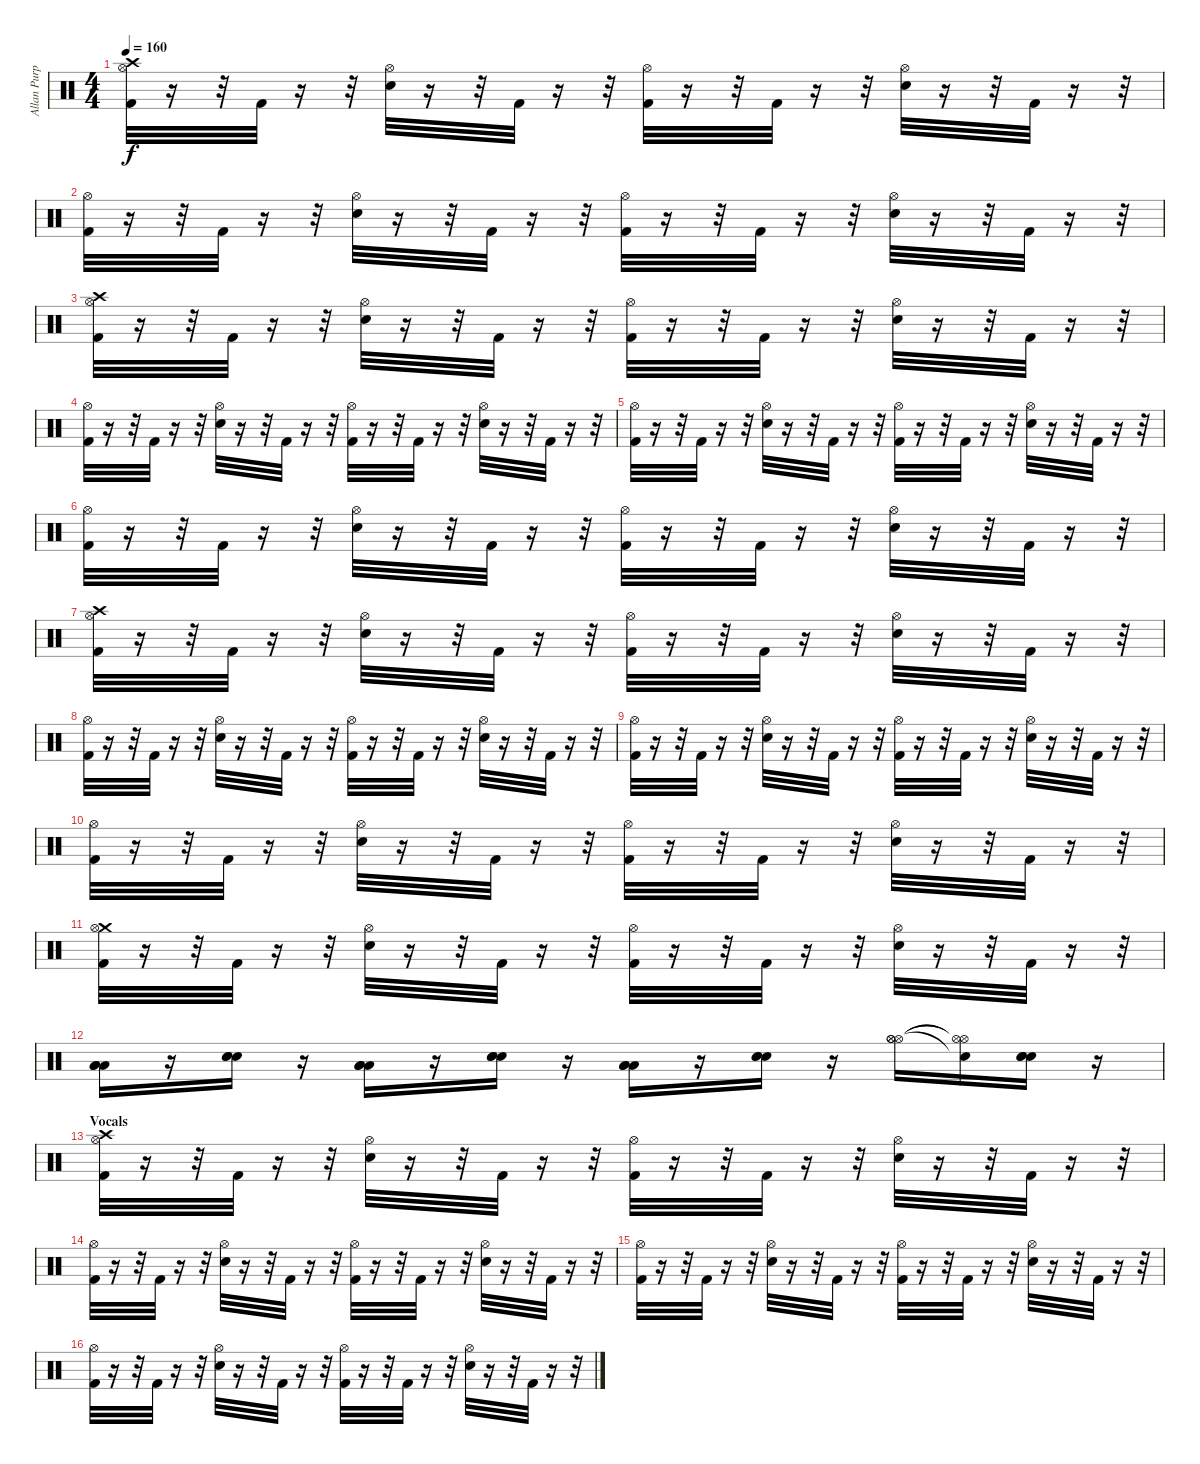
\track ("Allan Purple" "Allan Purp") {instrument percussion}
\staff {score}
\articulation defaults
\ts (4 4)
\tempo 160
\clef neutral
\ks c
("Crash high (hit)" "Hi-Hat (open)" "Kick (hit) 2").32{dy f} r.16 r.32 "Kick (hit) 2".32 r.16 r.32 ("Hi-Hat (open)" "Electric Snare (hit)").32 r.16 r.32 "Kick (hit) 2".32 r.16 r.32 ("Hi-Hat (open)" "Kick (hit) 2").32 r.16 r.32 "Kick (hit) 2".32 r.16 r.32 ("Hi-Hat (open)" "Electric Snare (hit)").32 r.16 r.32 "Kick (hit) 2".32 r.16 r.32 |
("Hi-Hat (open)" "Kick (hit) 2").32 r.16 r.32 "Kick (hit) 2".32 r.16 r.32 ("Hi-Hat (open)" "Electric Snare (hit)").32 r.16 r.32 "Kick (hit) 2".32 r.16 r.32 ("Hi-Hat (open)" "Kick (hit) 2").32 r.16 r.32 "Kick (hit) 2".32 r.16 r.32 ("Hi-Hat (open)" "Electric Snare (hit)").32 r.16 r.32 "Kick (hit) 2".32 r.16 r.32 |
("Crash high (hit)" "Hi-Hat (open)" "Kick (hit) 2").32 r.16 r.32 "Kick (hit) 2".32 r.16 r.32 ("Hi-Hat (open)" "Electric Snare (hit)").32 r.16 r.32 "Kick (hit) 2".32 r.16 r.32 ("Hi-Hat (open)" "Kick (hit) 2").32 r.16 r.32 "Kick (hit) 2".32 r.16 r.32 ("Hi-Hat (open)" "Electric Snare (hit)").32 r.16 r.32 "Kick (hit) 2".32 r.16 r.32 |
("Hi-Hat (open)" "Kick (hit) 2").32 r.16 r.32 "Kick (hit) 2".32 r.16 r.32 ("Hi-Hat (open)" "Electric Snare (hit)").32 r.16 r.32 "Kick (hit) 2".32 r.16 r.32 ("Hi-Hat (open)" "Kick (hit) 2").32 r.16 r.32 "Kick (hit) 2".32 r.16 r.32 ("Hi-Hat (open)" "Electric Snare (hit)").32 r.16 r.32 "Kick (hit) 2".32 r.16 r.32 |
("Hi-Hat (open)" "Kick (hit) 2").32 r.16 r.32 "Kick (hit) 2".32 r.16 r.32 ("Hi-Hat (open)" "Electric Snare (hit)").32 r.16 r.32 "Kick (hit) 2".32 r.16 r.32 ("Hi-Hat (open)" "Kick (hit) 2").32 r.16 r.32 "Kick (hit) 2".32 r.16 r.32 ("Hi-Hat (open)" "Electric Snare (hit)").32 r.16 r.32 "Kick (hit) 2".32 r.16 r.32 |
("Hi-Hat (open)" "Kick (hit) 2").32 r.16 r.32 "Kick (hit) 2".32 r.16 r.32 ("Hi-Hat (open)" "Electric Snare (hit)").32 r.16 r.32 "Kick (hit) 2".32 r.16 r.32 ("Hi-Hat (open)" "Kick (hit) 2").32 r.16 r.32 "Kick (hit) 2".32 r.16 r.32 ("Hi-Hat (open)" "Electric Snare (hit)").32 r.16 r.32 "Kick (hit) 2".32 r.16 r.32 |
("Crash high (hit)" "Hi-Hat (open)" "Kick (hit) 2").32 r.16 r.32 "Kick (hit) 2".32 r.16 r.32 ("Hi-Hat (open)" "Electric Snare (hit)").32 r.16 r.32 "Kick (hit) 2".32 r.16 r.32 ("Hi-Hat (open)" "Kick (hit) 2").32 r.16 r.32 "Kick (hit) 2".32 r.16 r.32 ("Hi-Hat (open)" "Electric Snare (hit)").32 r.16 r.32 "Kick (hit) 2".32 r.16 r.32 |
("Hi-Hat (open)" "Kick (hit) 2").32 r.16 r.32 "Kick (hit) 2".32 r.16 r.32 ("Hi-Hat (open)" "Electric Snare (hit)").32 r.16 r.32 "Kick (hit) 2".32 r.16 r.32 ("Hi-Hat (open)" "Kick (hit) 2").32 r.16 r.32 "Kick (hit) 2".32 r.16 r.32 ("Hi-Hat (open)" "Electric Snare (hit)").32 r.16 r.32 "Kick (hit) 2".32 r.16 r.32 |
("Hi-Hat (open)" "Kick (hit) 2").32 r.16 r.32 "Kick (hit) 2".32 r.16 r.32 ("Hi-Hat (open)" "Electric Snare (hit)").32 r.16 r.32 "Kick (hit) 2".32 r.16 r.32 ("Hi-Hat (open)" "Kick (hit) 2").32 r.16 r.32 "Kick (hit) 2".32 r.16 r.32 ("Hi-Hat (open)" "Electric Snare (hit)").32 r.16 r.32 "Kick (hit) 2".32 r.16 r.32 |
("Hi-Hat (open)" "Kick (hit) 2").32 r.16 r.32 "Kick (hit) 2".32 r.16 r.32 ("Hi-Hat (open)" "Electric Snare (hit)").32 r.16 r.32 "Kick (hit) 2".32 r.16 r.32 ("Hi-Hat (open)" "Kick (hit) 2").32 r.16 r.32 "Kick (hit) 2".32 r.16 r.32 ("Hi-Hat (open)" "Electric Snare (hit)").32 r.16 r.32 "Kick (hit) 2".32 r.16 r.32 |
("Crash medium (hit)" "Hi-Hat (open)" "Kick (hit) 2").32 r.16 r.32 "Kick (hit) 2".32 r.16 r.32 ("Hi-Hat (open)" "Electric Snare (hit)").32 r.16 r.32 "Kick (hit) 2".32 r.16 r.32 ("Hi-Hat (open)" "Kick (hit) 2").32 r.16 r.32 "Kick (hit) 2".32 r.16 r.32 ("Hi-Hat (open)" "Electric Snare (hit)").32 r.16 r.32 "Kick (hit) 2".32 r.16 r.32 |
("Low Tom (hit)" "Low Tom (hit)" "Low Tom (hit)").16 r.16 ("Electric Snare (hit)" "Electric Snare (hit)" "Electric Snare (hit)").16 r.16 ("Low Tom (hit)" "Low Tom (hit)" "Low Tom (hit)").16 r.16 ("Electric Snare (hit)" "Electric Snare (hit)" "Electric Snare (hit)").16 r.16 ("Low Tom (hit)" "Low Tom (hit)" "Low Tom (hit)").16 r.16 ("Electric Snare (hit)" "Electric Snare (hit)" "Electric Snare (hit)").16 r.16 ("Hi-Hat (open)" "Hi-Hat (open)" "Hi-Hat (open)").16 ("Snare (hit)"{t} "Hi-Hat (open)"{t} "Hi-Hat (open)"{t}).16 ("Electric Snare (hit)" "Electric Snare (hit)" "Electric Snare (hit)").16 r.16 |
\section ("" "Vocals")
("Crash high (hit)" "Hi-Hat (open)" "Kick (hit) 2").32 r.16 r.32 "Kick (hit) 2".32 r.16 r.32 ("Hi-Hat (open)" "Electric Snare (hit)").32 r.16 r.32 "Kick (hit) 2".32 r.16 r.32 ("Hi-Hat (open)" "Kick (hit) 2").32 r.16 r.32 "Kick (hit) 2".32 r.16 r.32 ("Hi-Hat (open)" "Electric Snare (hit)").32 r.16 r.32 "Kick (hit) 2".32 r.16 r.32 |
("Hi-Hat (open)" "Kick (hit) 2").32 r.16 r.32 "Kick (hit) 2".32 r.16 r.32 ("Hi-Hat (open)" "Electric Snare (hit)").32 r.16 r.32 "Kick (hit) 2".32 r.16 r.32 ("Hi-Hat (open)" "Kick (hit) 2").32 r.16 r.32 "Kick (hit) 2".32 r.16 r.32 ("Hi-Hat (open)" "Electric Snare (hit)").32 r.16 r.32 "Kick (hit) 2".32 r.16 r.32 |
("Hi-Hat (open)" "Kick (hit) 2").32 r.16 r.32 "Kick (hit) 2".32 r.16 r.32 ("Hi-Hat (open)" "Electric Snare (hit)").32 r.16 r.32 "Kick (hit) 2".32 r.16 r.32 ("Hi-Hat (open)" "Kick (hit) 2").32 r.16 r.32 "Kick (hit) 2".32 r.16 r.32 ("Hi-Hat (open)" "Electric Snare (hit)").32 r.16 r.32 "Kick (hit) 2".32 r.16 r.32 |
("Hi-Hat (open)" "Kick (hit) 2").32 r.16 r.32 "Kick (hit) 2".32 r.16 r.32 ("Hi-Hat (open)" "Electric Snare (hit)").32 r.16 r.32 "Kick (hit) 2".32 r.16 r.32 ("Hi-Hat (open)" "Kick (hit) 2").32 r.16 r.32 "Kick (hit) 2".32 r.16 r.32 ("Hi-Hat (open)" "Electric Snare (hit)").32 r.16 r.32 "Kick (hit) 2".32 r.16 r.32
